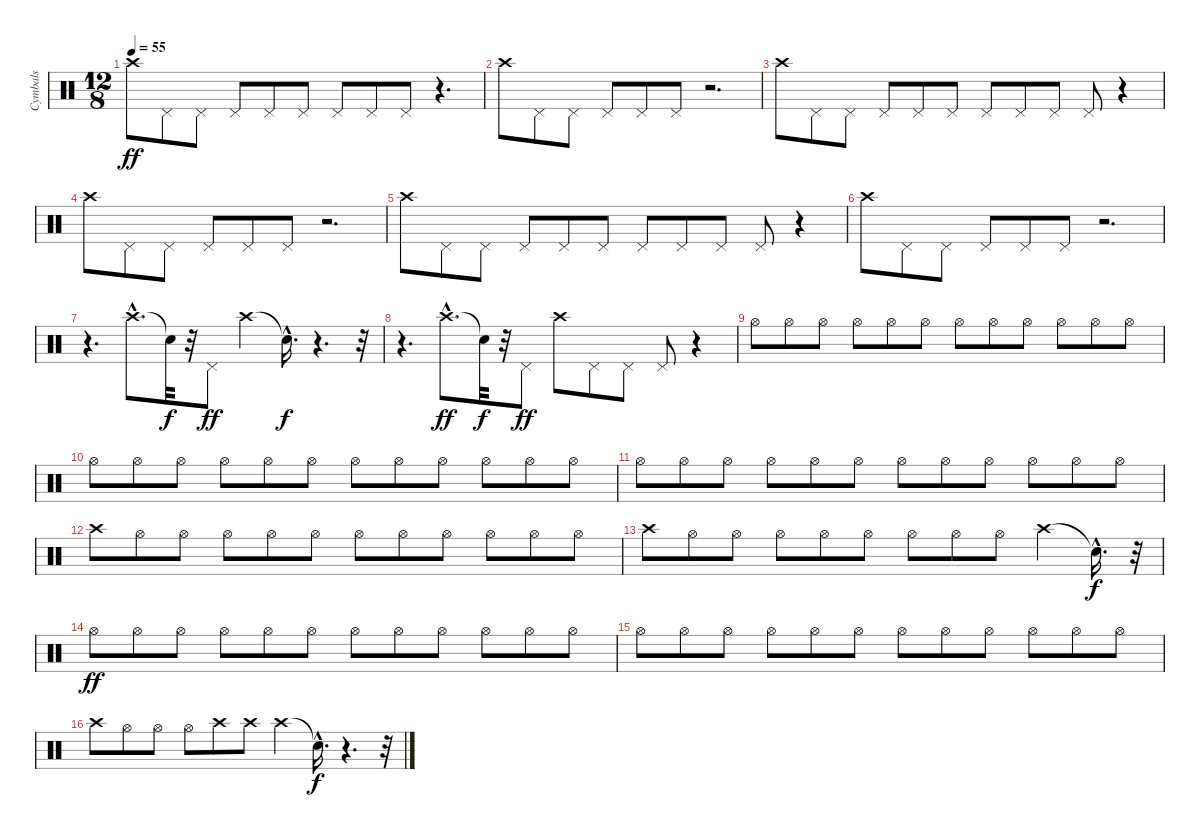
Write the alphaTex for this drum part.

\track ("Cymbals" "Cymbals") {instrument percussion}
\staff {score}
\articulation defaults
\ts (12 8)
\tempo 55
\clef neutral
\ks c "Crash high (hit)".8{dy ff} "Pedal Hi-Hat (hit)".8 "Pedal Hi-Hat (hit)".8 "Pedal Hi-Hat (hit)".8 "Pedal Hi-Hat (hit)".8 "Pedal Hi-Hat (hit)".8 "Pedal Hi-Hat (hit)".8 "Pedal Hi-Hat (hit)".8 "Pedal Hi-Hat (hit)".8
r.4{d} |
"Crash high (hit)".8 "Pedal Hi-Hat (hit)".8 "Pedal Hi-Hat (hit)".8 "Pedal Hi-Hat (hit)".8 "Pedal Hi-Hat (hit)".8 "Pedal Hi-Hat (hit)".8 r.2{d} |
"Crash high (hit)".8 "Pedal Hi-Hat (hit)".8 "Pedal Hi-Hat (hit)".8 "Pedal Hi-Hat (hit)".8 "Pedal Hi-Hat (hit)".8 "Pedal Hi-Hat (hit)".8 "Pedal Hi-Hat (hit)".8 "Pedal Hi-Hat (hit)".8 "Pedal Hi-Hat (hit)".8 "Pedal Hi-Hat (hit)".8 r.4 |
"Crash high (hit)".8 "Pedal Hi-Hat (hit)".8 "Pedal Hi-Hat (hit)".8 "Pedal Hi-Hat (hit)".8 "Pedal Hi-Hat (hit)".8 "Pedal Hi-Hat (hit)".8 r.2{d} |
"Crash high (hit)".8 "Pedal Hi-Hat (hit)".8 "Pedal Hi-Hat (hit)".8 "Pedal Hi-Hat (hit)".8 "Pedal Hi-Hat (hit)".8 "Pedal Hi-Hat (hit)".8 "Pedal Hi-Hat (hit)".8 "Pedal Hi-Hat (hit)".8 "Pedal Hi-Hat (hit)".8 "Pedal Hi-Hat (hit)".8 r.4 |
"Crash high (hit)".8 "Pedal Hi-Hat (hit)".8 "Pedal Hi-Hat (hit)".8 "Pedal Hi-Hat (hit)".8 "Pedal Hi-Hat (hit)".8 "Pedal Hi-Hat (hit)".8 r.2{d} |
r.4{d} "Crash high (hit)"{hac}.8{d} "Snare (hit)"{t}.32{dy f} r.32 "Pedal Hi-Hat (hit)".8{dy ff} "Crash high (hit)".4 "Snare (hit)"{hac t}.16{d dy f} r.4{d} r.32 |
r.4{d} "Crash high (hit)"{hac}.8{d dy ff} "Snare (hit)"{t}.32{dy f} r.32 "Pedal Hi-Hat (hit)".8{dy ff} "Crash high (hit)".8 "Pedal Hi-Hat (hit)".8 "Pedal Hi-Hat (hit)".8 "Pedal Hi-Hat (hit)".8 r.4 |
"Hi-Hat (open)".8 "Hi-Hat (open)".8 "Hi-Hat (open)".8 "Hi-Hat (open)".8 "Hi-Hat (open)".8 "Hi-Hat (open)".8 "Hi-Hat (open)".8 "Hi-Hat (open)".8 "Hi-Hat (open)".8 "Hi-Hat (open)".8 "Hi-Hat (open)".8 "Hi-Hat (open)".8 |
"Hi-Hat (open)".8 "Hi-Hat (open)".8 "Hi-Hat (open)".8 "Hi-Hat (open)".8 "Hi-Hat (open)".8 "Hi-Hat (open)".8 "Hi-Hat (open)".8 "Hi-Hat (open)".8 "Hi-Hat (open)".8 "Hi-Hat (open)".8 "Hi-Hat (open)".8 "Hi-Hat (open)".8 |
"Hi-Hat (open)".8 "Hi-Hat (open)".8 "Hi-Hat (open)".8 "Hi-Hat (open)".8 "Hi-Hat (open)".8 "Hi-Hat (open)".8 "Hi-Hat (open)".8 "Hi-Hat (open)".8 "Hi-Hat (open)".8 "Hi-Hat (open)".8 "Hi-Hat (open)".8 "Hi-Hat (open)".8 |
"Crash high (hit)".8 "Hi-Hat (open)".8 "Hi-Hat (open)".8 "Hi-Hat (open)".8 "Hi-Hat (open)".8 "Hi-Hat (open)".8 "Hi-Hat (open)".8 "Hi-Hat (open)".8 "Hi-Hat (open)".8 "Hi-Hat (open)".8 "Hi-Hat (open)".8 "Hi-Hat (open)".8 |
"Crash high (hit)".8 "Hi-Hat (open)".8 "Hi-Hat (open)".8 "Hi-Hat (open)".8 "Hi-Hat (open)".8 "Hi-Hat (open)".8 "Hi-Hat (open)".8 "Hi-Hat (open)".8 "Hi-Hat (open)".8 "Crash high (hit)".4 "Snare (hit)"{hac t}.16{d dy f} r.32 |
"Hi-Hat (open)".8{dy ff} "Hi-Hat (open)".8 "Hi-Hat (open)".8 "Hi-Hat (open)".8 "Hi-Hat (open)".8 "Hi-Hat (open)".8 "Hi-Hat (open)".8 "Hi-Hat (open)".8 "Hi-Hat (open)".8 "Hi-Hat (open)".8 "Hi-Hat (open)".8 "Hi-Hat (open)".8 |
"Hi-Hat (open)".8 "Hi-Hat (open)".8 "Hi-Hat (open)".8 "Hi-Hat (open)".8 "Hi-Hat (open)".8 "Hi-Hat (open)".8 "Hi-Hat (open)".8 "Hi-Hat (open)".8 "Hi-Hat (open)".8 "Hi-Hat (open)".8 "Hi-Hat (open)".8 "Hi-Hat (open)".8 |
"Crash high (hit)".8 "Hi-Hat (open)".8 "Hi-Hat (open)".8 "Hi-Hat (open)".8 "Crash high (hit)".8 "Crash high (hit)".8 "Crash high (hit)".4 "Snare (hit)"{hac t}.16{d dy f} r.4{d} r.32
